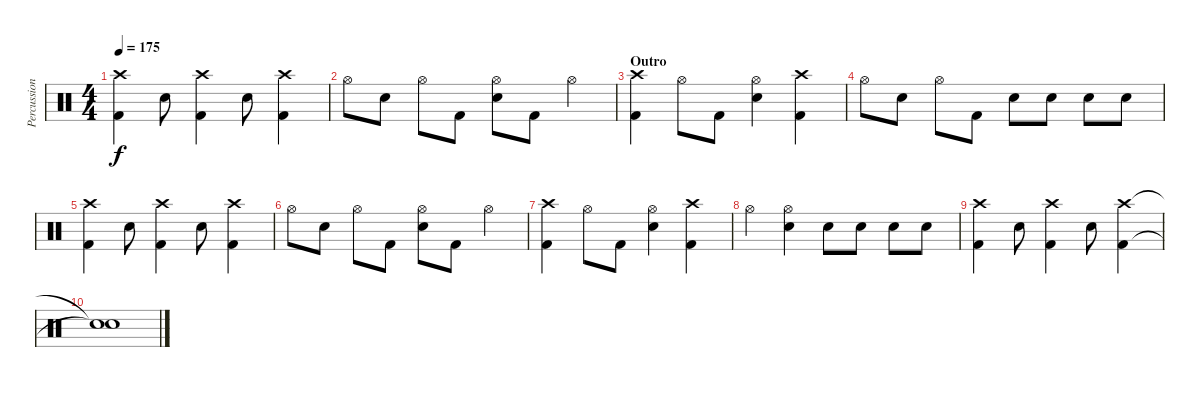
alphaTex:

\track ("Percussion" "Percussion") {instrument percussion}
\staff {score}
\articulation defaults
\ts (4 4)
\tempo 175
\clef neutral
\ks c
("Crash high (hit)" "Kick (hit) 2").4{dy f} "Electric Snare (hit)".8 ("Crash high (hit)" "Kick (hit) 2").4 "Electric Snare (hit)".8 ("Crash high (hit)" "Kick (hit) 2").4 |
"Hi-Hat (open)".8 "Electric Snare (hit)".8 "Hi-Hat (open)".8 "Kick (hit) 2".8 ("Hi-Hat (open)" "Electric Snare (hit)").8 "Kick (hit) 2".8 "Hi-Hat (open)".4 |
\section ("" "Outro")
("Crash high (hit)" "Kick (hit) 2").4 "Hi-Hat (open)".8 "Kick (hit) 2".8 ("Hi-Hat (open)" "Electric Snare (hit)").4 ("Crash high (hit)" "Kick (hit) 2").4 |
"Hi-Hat (open)".8 "Electric Snare (hit)".8 "Hi-Hat (open)".8 "Kick (hit) 2".8 "Electric Snare (hit)".8 "Electric Snare (hit)".8 "Electric Snare (hit)".8 "Electric Snare (hit)".8 |
("Crash high (hit)" "Kick (hit) 2").4 "Electric Snare (hit)".8 ("Crash high (hit)" "Kick (hit) 2").4 "Electric Snare (hit)".8 ("Crash high (hit)" "Kick (hit) 2").4 |
"Hi-Hat (open)".8 "Electric Snare (hit)".8 "Hi-Hat (open)".8 "Kick (hit) 2".8 ("Hi-Hat (open)" "Electric Snare (hit)").8 "Kick (hit) 2".8 "Hi-Hat (open)".4 |
("Crash high (hit)" "Kick (hit) 2").4 "Hi-Hat (open)".8 "Kick (hit) 2".8 ("Hi-Hat (open)" "Electric Snare (hit)").4 ("Crash high (hit)" "Kick (hit) 2").4 |
"Hi-Hat (open)".4 ("Hi-Hat (open)" "Electric Snare (hit)").4 "Electric Snare (hit)".8 "Electric Snare (hit)".8 "Electric Snare (hit)".8 "Electric Snare (hit)".8 |
("Crash high (hit)" "Kick (hit) 2").4 "Electric Snare (hit)".8 ("Crash high (hit)" "Kick (hit) 2").4 "Electric Snare (hit)".8 ("Crash high (hit)" "Kick (hit) 2").4 |
("Snare (hit)"{t} "Snare (hit)"{t}).1
